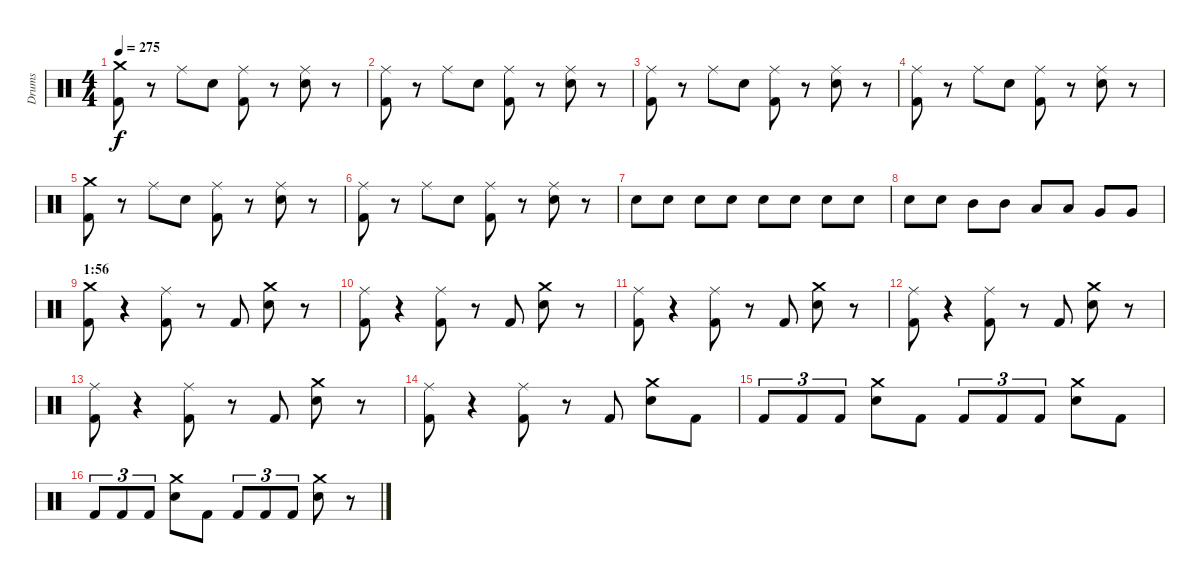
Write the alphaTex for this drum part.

\track ("Drums" "Drums") {instrument percussion}
\staff {score}
\articulation defaults
\ts (4 4)
\tempo 275
\clef neutral
\ks c
("Crash medium (hit)" "Kick (hit) 2").8{dy f} r.8 "Ride (middle)".8 "Electric Snare (hit)".8 ("Ride (middle)" "Kick (hit) 2").8 r.8 ("Ride (middle)" "Electric Snare (hit)").8 r.8 |
("Ride (middle)" "Kick (hit) 2").8 r.8 "Ride (middle)".8 "Electric Snare (hit)".8 ("Ride (middle)" "Kick (hit) 2").8 r.8 ("Ride (middle)" "Electric Snare (hit)").8 r.8 |
("Ride (middle)" "Kick (hit) 2").8 r.8 "Ride (middle)".8 "Electric Snare (hit)".8 ("Ride (middle)" "Kick (hit) 2").8 r.8 ("Ride (middle)" "Electric Snare (hit)").8 r.8 |
("Ride (middle)" "Kick (hit) 2").8 r.8 "Ride (middle)".8 "Electric Snare (hit)".8 ("Ride (middle)" "Kick (hit) 2").8 r.8 ("Ride (middle)" "Electric Snare (hit)").8 r.8 |
("Crash medium (hit)" "Kick (hit) 2").8 r.8 "Ride (middle)".8 "Electric Snare (hit)".8 ("Ride (middle)" "Kick (hit) 2").8 r.8 ("Ride (middle)" "Electric Snare (hit)").8 r.8 |
("Ride (middle)" "Kick (hit) 2").8 r.8 "Ride (middle)".8 "Electric Snare (hit)".8 ("Ride (middle)" "Kick (hit) 2").8 r.8 ("Ride (middle)" "Electric Snare (hit)").8 r.8 |
"Electric Snare (hit)".8 "Electric Snare (hit)".8 "Electric Snare (hit)".8 "Electric Snare (hit)".8 "Electric Snare (hit)".8 "Electric Snare (hit)".8 "Electric Snare (hit)".8 "Electric Snare (hit)".8 |
"Electric Snare (hit)".8 "Electric Snare (hit)".8 "Mid Tom (hit)".8 "Mid Tom (hit)".8 "Low Tom (hit)".8 "Low Tom (hit)".8 "Very Low Tom (hit)".8 "Very Low Tom (hit)".8 |
\section ("" "1:56")
("Crash medium (hit)" "Kick (hit) 2").8 r.4 ("Ride (middle)" "Kick (hit) 2").8 r.8 "Kick (hit) 2".8 ("Crash medium (hit)" "Electric Snare (hit)").8 r.8 |
("Ride (middle)" "Kick (hit) 2").8 r.4 ("Ride (middle)" "Kick (hit) 2").8 r.8 "Kick (hit) 2".8 ("Crash medium (hit)" "Electric Snare (hit)").8 r.8 |
("Ride (middle)" "Kick (hit) 2").8 r.4 ("Ride (middle)" "Kick (hit) 2").8 r.8 "Kick (hit) 2".8 ("Crash medium (hit)" "Electric Snare (hit)").8 r.8 |
("Ride (middle)" "Kick (hit) 2").8 r.4 ("Ride (middle)" "Kick (hit) 2").8 r.8 "Kick (hit) 2".8 ("Crash medium (hit)" "Electric Snare (hit)").8 r.8 |
("Ride (middle)" "Kick (hit) 2").8 r.4 ("Ride (middle)" "Kick (hit) 2").8 r.8 "Kick (hit) 2".8 ("Crash medium (hit)" "Electric Snare (hit)").8 r.8 |
("Ride (middle)" "Kick (hit) 2").8 r.4 ("Ride (middle)" "Kick (hit) 2").8 r.8 "Kick (hit) 2".8 ("Crash medium (hit)" "Electric Snare (hit)").8 "Kick (hit) 2".8 |
"Kick (hit) 2".8{tu (3 2)} "Kick (hit) 2".8{tu (3 2)} "Kick (hit) 2".8{tu (3 2)} ("Crash medium (hit)" "Electric Snare (hit)").8 "Kick (hit) 2".8 "Kick (hit) 2".8{tu (3 2)} "Kick (hit) 2".8{tu (3 2)} "Kick (hit) 2".8{tu (3 2)} ("Crash medium (hit)" "Electric Snare (hit)").8 "Kick (hit) 2".8 |
"Kick (hit) 2".8{tu (3 2)} "Kick (hit) 2".8{tu (3 2)} "Kick (hit) 2".8{tu (3 2)} ("Crash medium (hit)" "Electric Snare (hit)").8 "Kick (hit) 2".8 "Kick (hit) 2".8{tu (3 2)} "Kick (hit) 2".8{tu (3 2)} "Kick (hit) 2".8{tu (3 2)} ("Crash medium (hit)" "Electric Snare (hit)").8 r.8
